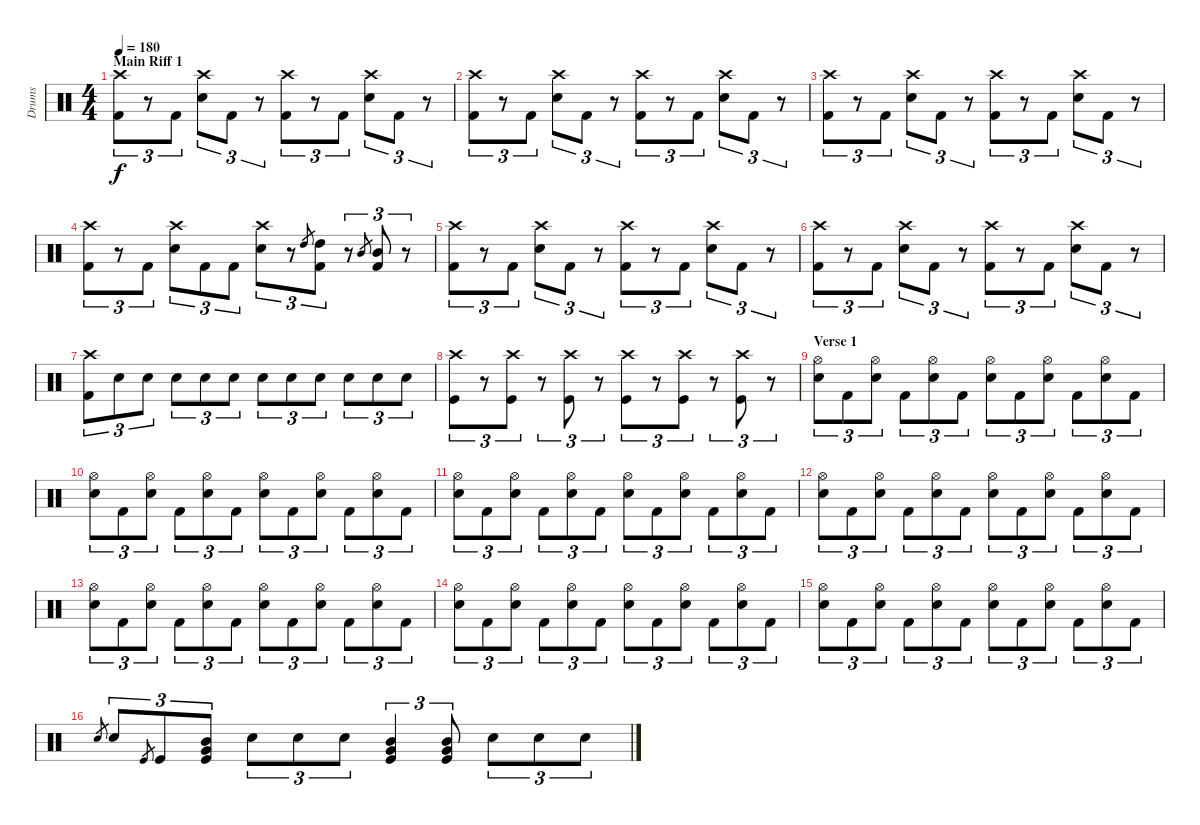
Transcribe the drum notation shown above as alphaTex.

\track ("Drums" "Drums") {instrument percussion}
\staff {score}
\articulation defaults
\ts (4 4)
\section ("" "Main Riff 1")
\tempo 180
\clef neutral
\ks c
("Crash high (hit)" "Kick (hit) 2").8{tu (3 2) dy f} r.8{tu (3 2)} "Kick (hit) 2".8{tu (3 2)} ("Crash high (hit)" "Electric Snare (hit)").8{tu (3 2)} "Kick (hit) 2".8{tu (3 2)} r.8{tu (3 2)} ("Crash high (hit)" "Kick (hit) 2").8{tu (3 2)} r.8{tu (3 2)} "Kick (hit) 2".8{tu (3 2)} ("Crash high (hit)" "Electric Snare (hit)").8{tu (3 2)} "Kick (hit) 2".8{tu (3 2)} r.8{tu (3 2)} |
("Crash high (hit)" "Kick (hit) 2").8{tu (3 2)} r.8{tu (3 2)} "Kick (hit) 2".8{tu (3 2)} ("Crash high (hit)" "Electric Snare (hit)").8{tu (3 2)} "Kick (hit) 2".8{tu (3 2)} r.8{tu (3 2)} ("Crash high (hit)" "Kick (hit) 2").8{tu (3 2)} r.8{tu (3 2)} "Kick (hit) 2".8{tu (3 2)} ("Crash high (hit)" "Electric Snare (hit)").8{tu (3 2)} "Kick (hit) 2".8{tu (3 2)} r.8{tu (3 2)} |
("Crash high (hit)" "Kick (hit) 2").8{tu (3 2)} r.8{tu (3 2)} "Kick (hit) 2".8{tu (3 2)} ("Crash high (hit)" "Electric Snare (hit)").8{tu (3 2)} "Kick (hit) 2".8{tu (3 2)} r.8{tu (3 2)} ("Crash high (hit)" "Kick (hit) 2").8{tu (3 2)} r.8{tu (3 2)} "Kick (hit) 2".8{tu (3 2)} ("Crash high (hit)" "Electric Snare (hit)").8{tu (3 2)} "Kick (hit) 2".8{tu (3 2)} r.8{tu (3 2)} |
("Crash high (hit)" "Kick (hit) 2").8{tu (3 2)} r.8{tu (3 2)} "Kick (hit) 2".8{tu (3 2)} ("Crash high (hit)" "Electric Snare (hit)").8{tu (3 2)} "Kick (hit) 2".8{tu (3 2)} "Kick (hit) 2".8{tu (3 2)} ("Crash high (hit)" "Electric Snare (hit)").8{tu (3 2)} r.8{tu (3 2)} "High Tom (hit)".8{gr} ("High Tom (hit)" "Kick (hit) 2").8{tu (3 2)} r.8{tu (3 2)} "Mid Tom (hit)".8{gr} ("Mid Tom (hit)" "Kick (hit) 2").8{tu (3 2)} r.8{tu (3 2)} |
("Crash high (hit)" "Kick (hit) 2").8{tu (3 2)} r.8{tu (3 2)} "Kick (hit) 2".8{tu (3 2)} ("Crash high (hit)" "Electric Snare (hit)").8{tu (3 2)} "Kick (hit) 2".8{tu (3 2)} r.8{tu (3 2)} ("Crash high (hit)" "Kick (hit) 2").8{tu (3 2)} r.8{tu (3 2)} "Kick (hit) 2".8{tu (3 2)} ("Crash high (hit)" "Electric Snare (hit)").8{tu (3 2)} "Kick (hit) 2".8{tu (3 2)} r.8{tu (3 2)} |
("Crash high (hit)" "Kick (hit) 2").8{tu (3 2)} r.8{tu (3 2)} "Kick (hit) 2".8{tu (3 2)} ("Crash high (hit)" "Electric Snare (hit)").8{tu (3 2)} "Kick (hit) 2".8{tu (3 2)} r.8{tu (3 2)} ("Crash high (hit)" "Kick (hit) 2").8{tu (3 2)} r.8{tu (3 2)} "Kick (hit) 2".8{tu (3 2)} ("Crash high (hit)" "Electric Snare (hit)").8{tu (3 2)} "Kick (hit) 2".8{tu (3 2)} r.8{tu (3 2)} |
("Crash high (hit)" "Kick (hit) 2").8{tu (3 2)} "Electric Snare (hit)".8{tu (3 2)} "Electric Snare (hit)".8{tu (3 2)} "Electric Snare (hit)".8{tu (3 2)} "Electric Snare (hit)".8{tu (3 2)} "Electric Snare (hit)".8{tu (3 2)} "Electric Snare (hit)".8{tu (3 2)} "Electric Snare (hit)".8{tu (3 2)} "Electric Snare (hit)".8{tu (3 2)} "Electric Snare (hit)".8{tu (3 2)} "Electric Snare (hit)".8{tu (3 2)} "Electric Snare (hit)".8{tu (3 2)} |
("Crash high (hit)" "Kick (hit)").8{tu (3 2)} r.8{tu (3 2)} ("Crash high (hit)" "Kick (hit)").8{tu (3 2)} r.8{tu (3 2)} ("Crash high (hit)" "Kick (hit)").8{tu (3 2)} r.8{tu (3 2)} ("Crash high (hit)" "Kick (hit)").8{tu (3 2)} r.8{tu (3 2)} ("Crash high (hit)" "Kick (hit)").8{tu (3 2)} r.8{tu (3 2)} ("Crash high (hit)" "Kick (hit)").8{tu (3 2)} r.8{tu (3 2)} |
\section ("" "Verse 1")
("Hi-Hat (open)" "Snare (hit) 2").8{tu (3 2)} "Kick (hit) 2".8{tu (3 2)} ("Hi-Hat (open)" "Snare (hit) 2").8{tu (3 2)} "Kick (hit) 2".8{tu (3 2)} ("Hi-Hat (open)" "Snare (hit) 2").8{tu (3 2)} "Kick (hit) 2".8{tu (3 2)} ("Hi-Hat (open)" "Snare (hit) 2").8{tu (3 2)} "Kick (hit) 2".8{tu (3 2)} ("Hi-Hat (open)" "Snare (hit) 2").8{tu (3 2)} "Kick (hit) 2".8{tu (3 2)} ("Hi-Hat (open)" "Snare (hit) 2").8{tu (3 2)} "Kick (hit) 2".8{tu (3 2)} |
("Hi-Hat (open)" "Snare (hit) 2").8{tu (3 2)} "Kick (hit) 2".8{tu (3 2)} ("Hi-Hat (open)" "Snare (hit) 2").8{tu (3 2)} "Kick (hit) 2".8{tu (3 2)} ("Hi-Hat (open)" "Snare (hit) 2").8{tu (3 2)} "Kick (hit) 2".8{tu (3 2)} ("Hi-Hat (open)" "Snare (hit) 2").8{tu (3 2)} "Kick (hit) 2".8{tu (3 2)} ("Hi-Hat (open)" "Snare (hit) 2").8{tu (3 2)} "Kick (hit) 2".8{tu (3 2)} ("Hi-Hat (open)" "Snare (hit) 2").8{tu (3 2)} "Kick (hit) 2".8{tu (3 2)} |
("Hi-Hat (open)" "Snare (hit) 2").8{tu (3 2)} "Kick (hit) 2".8{tu (3 2)} ("Hi-Hat (open)" "Snare (hit) 2").8{tu (3 2)} "Kick (hit) 2".8{tu (3 2)} ("Hi-Hat (open)" "Snare (hit) 2").8{tu (3 2)} "Kick (hit) 2".8{tu (3 2)} ("Hi-Hat (open)" "Snare (hit) 2").8{tu (3 2)} "Kick (hit) 2".8{tu (3 2)} ("Hi-Hat (open)" "Snare (hit) 2").8{tu (3 2)} "Kick (hit) 2".8{tu (3 2)} ("Hi-Hat (open)" "Snare (hit) 2").8{tu (3 2)} "Kick (hit) 2".8{tu (3 2)} |
("Hi-Hat (open)" "Snare (hit) 2").8{tu (3 2)} "Kick (hit) 2".8{tu (3 2)} ("Hi-Hat (open)" "Snare (hit) 2").8{tu (3 2)} "Kick (hit) 2".8{tu (3 2)} ("Hi-Hat (open)" "Snare (hit) 2").8{tu (3 2)} "Kick (hit) 2".8{tu (3 2)} ("Hi-Hat (open)" "Snare (hit) 2").8{tu (3 2)} "Kick (hit) 2".8{tu (3 2)} ("Hi-Hat (open)" "Snare (hit) 2").8{tu (3 2)} "Kick (hit) 2".8{tu (3 2)} ("Hi-Hat (open)" "Snare (hit) 2").8{tu (3 2)} "Kick (hit) 2".8{tu (3 2)} |
("Hi-Hat (open)" "Snare (hit) 2").8{tu (3 2)} "Kick (hit) 2".8{tu (3 2)} ("Hi-Hat (open)" "Snare (hit) 2").8{tu (3 2)} "Kick (hit) 2".8{tu (3 2)} ("Hi-Hat (open)" "Snare (hit) 2").8{tu (3 2)} "Kick (hit) 2".8{tu (3 2)} ("Hi-Hat (open)" "Snare (hit) 2").8{tu (3 2)} "Kick (hit) 2".8{tu (3 2)} ("Hi-Hat (open)" "Snare (hit) 2").8{tu (3 2)} "Kick (hit) 2".8{tu (3 2)} ("Hi-Hat (open)" "Snare (hit) 2").8{tu (3 2)} "Kick (hit) 2".8{tu (3 2)} |
("Hi-Hat (open)" "Snare (hit) 2").8{tu (3 2)} "Kick (hit) 2".8{tu (3 2)} ("Hi-Hat (open)" "Snare (hit) 2").8{tu (3 2)} "Kick (hit) 2".8{tu (3 2)} ("Hi-Hat (open)" "Snare (hit) 2").8{tu (3 2)} "Kick (hit) 2".8{tu (3 2)} ("Hi-Hat (open)" "Snare (hit) 2").8{tu (3 2)} "Kick (hit) 2".8{tu (3 2)} ("Hi-Hat (open)" "Snare (hit) 2").8{tu (3 2)} "Kick (hit) 2".8{tu (3 2)} ("Hi-Hat (open)" "Snare (hit) 2").8{tu (3 2)} "Kick (hit) 2".8{tu (3 2)} |
("Hi-Hat (open)" "Snare (hit) 2").8{tu (3 2)} "Kick (hit) 2".8{tu (3 2)} ("Hi-Hat (open)" "Snare (hit) 2").8{tu (3 2)} "Kick (hit) 2".8{tu (3 2)} ("Hi-Hat (open)" "Snare (hit) 2").8{tu (3 2)} "Kick (hit) 2".8{tu (3 2)} ("Hi-Hat (open)" "Snare (hit) 2").8{tu (3 2)} "Kick (hit) 2".8{tu (3 2)} ("Hi-Hat (open)" "Snare (hit) 2").8{tu (3 2)} "Kick (hit) 2".8{tu (3 2)} ("Hi-Hat (open)" "Snare (hit) 2").8{tu (3 2)} "Kick (hit) 2".8{tu (3 2)} |
"Snare (hit) 2".8{gr} "Snare (hit) 2".8{tu (3 2)} "Kick (hit)".8{gr} "Kick (hit)".8{tu (3 2)} ("Mid Tom (hit)" "Very Low Tom (hit)" "Kick (hit)").8{tu (3 2)} "Snare (hit) 2".8{tu (3 2)} "Snare (hit) 2".8{tu (3 2)} "Snare (hit) 2".8{tu (3 2)} ("Mid Tom (hit)" "Very Low Tom (hit)" "Kick (hit)").4{tu (3 2)} ("Mid Tom (hit)" "Very Low Tom (hit)" "Kick (hit)").8{tu (3 2)} "Snare (hit) 2".8{tu (3 2)} "Snare (hit) 2".8{tu (3 2)} "Snare (hit) 2".8{tu (3 2)}
